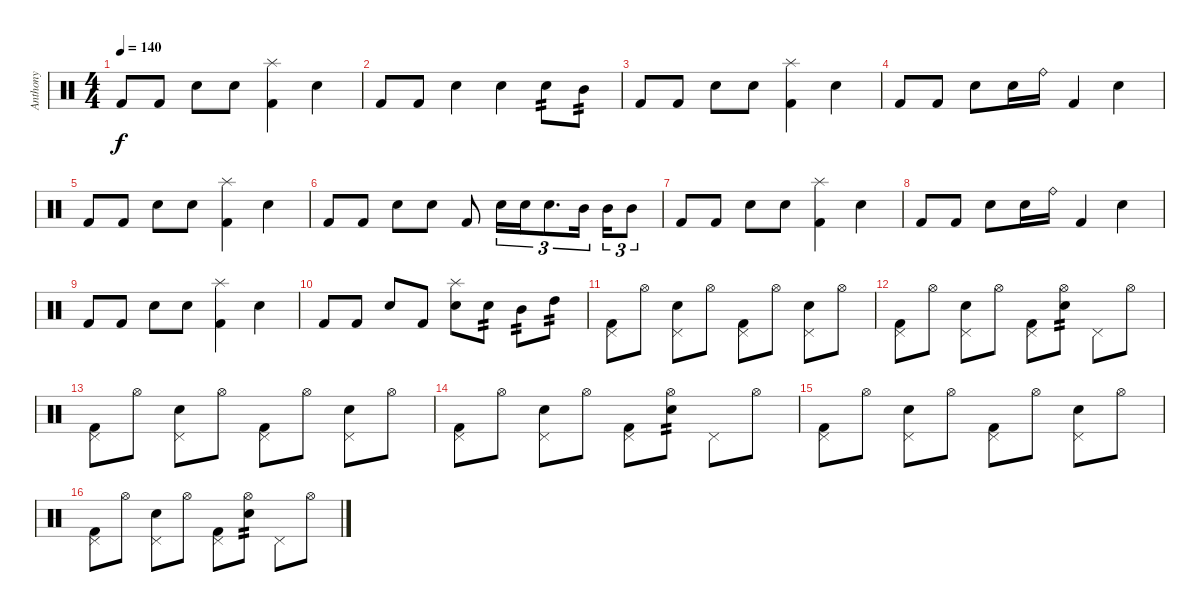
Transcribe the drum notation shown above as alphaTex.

\track ("Anthony" "Anthony") {instrument percussion}
\staff {score}
\articulation defaults
\ts (4 4)
\tempo 140
\clef neutral
\ks c "Kick (hit) 2".8{dy f} "Kick (hit) 2".8 "Snare (hit) 2".8 "Snare (hit) 2".8
("Splash (hit)" "Kick (hit) 2").4 "Snare (hit) 2".4 |
"Kick (hit) 2".8 "Kick (hit) 2".8 "Snare (hit) 2".4 "Snare (hit) 2".4 "Snare (hit) 2".8{tp 2} "Mid Tom (hit)".8{tp 2} |
"Kick (hit) 2".8 "Kick (hit) 2".8 "Snare (hit) 2".8 "Snare (hit) 2".8 ("Splash (hit)" "Kick (hit) 2").4 "Snare (hit) 2".4 |
"Kick (hit) 2".8 "Kick (hit) 2".8 "Snare (hit) 2".8 "Snare (hit) 2".16 "Ride (bell)".16 "Kick (hit) 2".4 "Snare (hit) 2".4 |
"Kick (hit) 2".8 "Kick (hit) 2".8 "Snare (hit) 2".8 "Snare (hit) 2".8 ("Splash (hit)" "Kick (hit) 2").4 "Snare (hit) 2".4 |
"Kick (hit) 2".8 "Kick (hit) 2".8 "Snare (hit) 2".8 "Snare (hit) 2".8 "Kick (hit) 2".8 "Snare (hit) 2".16{tu (3 2)} "Snare (hit) 2".16{tu (3 2)} "Snare (hit) 2".8{d tu (3 2)} "Mid Tom (hit)".16{tu (3 2)} "Mid Tom (hit)".16{tu (3 2)} "Mid Tom (hit)".8{tu (3 2)} |
"Kick (hit) 2".8 "Kick (hit) 2".8 "Snare (hit) 2".8 "Snare (hit) 2".8 ("Splash (hit)" "Kick (hit) 2").4 "Snare (hit) 2".4 |
"Kick (hit) 2".8 "Kick (hit) 2".8 "Snare (hit) 2".8 "Snare (hit) 2".16 "Ride (bell)".16 "Kick (hit) 2".4 "Snare (hit) 2".4 |
"Kick (hit) 2".8 "Kick (hit) 2".8 "Snare (hit) 2".8 "Snare (hit) 2".8 ("Splash (hit)" "Kick (hit) 2").4 "Snare (hit) 2".4 |
"Kick (hit) 2".8 "Kick (hit) 2".8 "Snare (hit) 2".8 "Kick (hit) 2".8 ("Splash (hit)" "Snare (hit) 2").8 "Snare (hit) 2".8{tp 2} "Mid Tom (hit)".8{tp 2} "High Tom (hit)".8{tp 2} |
("Pedal Hi-Hat (hit)" "Kick (hit) 2").8 "Hi-Hat (open)".8 ("Pedal Hi-Hat (hit)" "Snare (hit) 2").8 "Hi-Hat (open)".8 ("Pedal Hi-Hat (hit)" "Kick (hit) 2").8 "Hi-Hat (open)".8 ("Pedal Hi-Hat (hit)" "Snare (hit) 2").8 "Hi-Hat (open)".8 |
("Pedal Hi-Hat (hit)" "Kick (hit) 2").8 "Hi-Hat (open)".8 ("Pedal Hi-Hat (hit)" "Snare (hit) 2").8 "Hi-Hat (open)".8 ("Pedal Hi-Hat (hit)" "Kick (hit) 2").8 ("Hi-Hat (open)" "Snare (hit) 2").8{tp 2} "Pedal Hi-Hat (hit)".8 "Hi-Hat (open)".8 |
("Pedal Hi-Hat (hit)" "Kick (hit) 2").8 "Hi-Hat (open)".8 ("Pedal Hi-Hat (hit)" "Snare (hit) 2").8 "Hi-Hat (open)".8 ("Pedal Hi-Hat (hit)" "Kick (hit) 2").8 "Hi-Hat (open)".8 ("Pedal Hi-Hat (hit)" "Snare (hit) 2").8 "Hi-Hat (open)".8 |
("Pedal Hi-Hat (hit)" "Kick (hit) 2").8 "Hi-Hat (open)".8 ("Pedal Hi-Hat (hit)" "Snare (hit) 2").8 "Hi-Hat (open)".8 ("Pedal Hi-Hat (hit)" "Kick (hit) 2").8 ("Hi-Hat (open)" "Snare (hit) 2").8{tp 2} "Pedal Hi-Hat (hit)".8 "Hi-Hat (open)".8 |
("Pedal Hi-Hat (hit)" "Kick (hit) 2").8 "Hi-Hat (open)".8 ("Pedal Hi-Hat (hit)" "Snare (hit) 2").8 "Hi-Hat (open)".8 ("Pedal Hi-Hat (hit)" "Kick (hit) 2").8 "Hi-Hat (open)".8 ("Pedal Hi-Hat (hit)" "Snare (hit) 2").8 "Hi-Hat (open)".8 |
("Pedal Hi-Hat (hit)" "Kick (hit) 2").8 "Hi-Hat (open)".8 ("Pedal Hi-Hat (hit)" "Snare (hit) 2").8 "Hi-Hat (open)".8 ("Pedal Hi-Hat (hit)" "Kick (hit) 2").8 ("Hi-Hat (open)" "Snare (hit) 2").8{tp 2} "Pedal Hi-Hat (hit)".8 "Hi-Hat (open)".8
